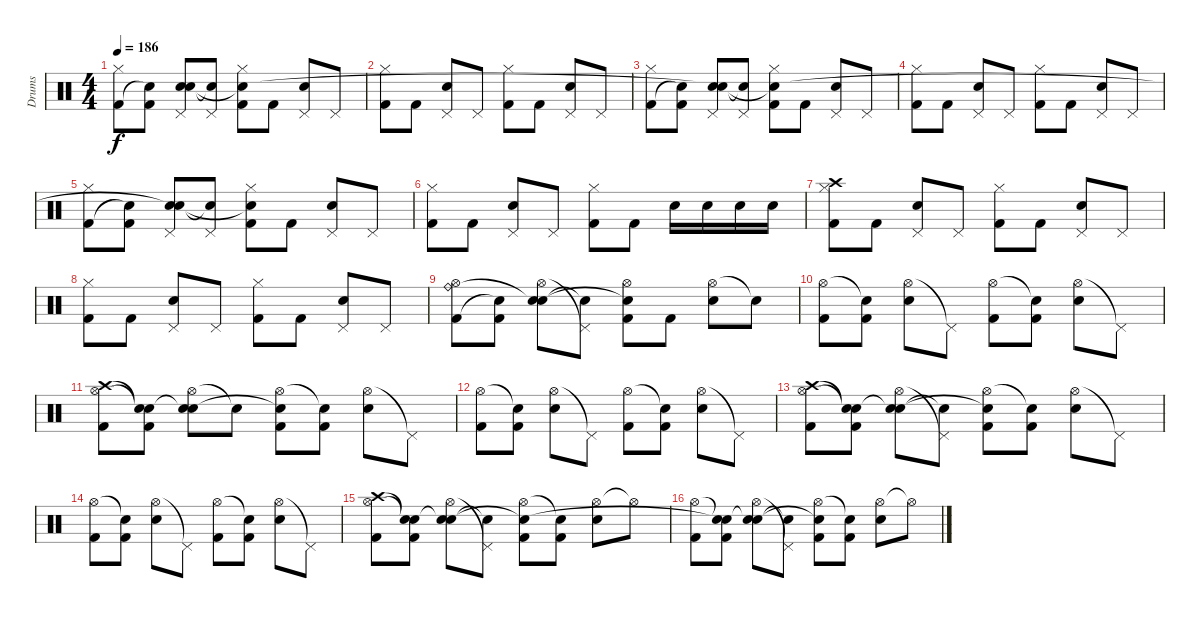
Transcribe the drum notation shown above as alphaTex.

\track ("Drums" "Drums") {instrument percussion}
\staff {score}
\articulation defaults
\ts (4 4)
\tempo 186
\clef neutral
\ks c
("Hi-Hat (closed)" "Kick (hit) 2").8{dy f} ("Kick (hit) 2" "Snare (hit)"{t}).8 ("Pedal Hi-Hat (hit)" "Electric Snare (hit)" "Snare (hit)"{t}).8 ("Pedal Hi-Hat (hit)" "Snare (hit)"{t}).8 ("Hi-Hat (closed)" "Kick (hit) 2" "Snare (hit)"{t}).8 "Kick (hit) 2".8 ("Pedal Hi-Hat (hit)" "Electric Snare (hit)").8 "Pedal Hi-Hat (hit)".8 |
("Hi-Hat (closed)" "Kick (hit) 2").8 "Kick (hit) 2".8 ("Pedal Hi-Hat (hit)" "Electric Snare (hit)").8 "Pedal Hi-Hat (hit)".8 ("Hi-Hat (closed)" "Kick (hit) 2").8 "Kick (hit) 2".8 ("Pedal Hi-Hat (hit)" "Electric Snare (hit)").8 "Pedal Hi-Hat (hit)".8 |
("Hi-Hat (closed)" "Kick (hit) 2").8 ("Kick (hit) 2" "Snare (hit)"{t}).8 ("Pedal Hi-Hat (hit)" "Electric Snare (hit)" "Snare (hit)"{t}).8 ("Pedal Hi-Hat (hit)" "Snare (hit)"{t}).8 ("Hi-Hat (closed)" "Kick (hit) 2" "Snare (hit)"{t}).8 "Kick (hit) 2".8 ("Pedal Hi-Hat (hit)" "Electric Snare (hit)").8 "Pedal Hi-Hat (hit)".8 |
("Hi-Hat (closed)" "Kick (hit) 2").8 "Kick (hit) 2".8 ("Pedal Hi-Hat (hit)" "Electric Snare (hit)").8 "Pedal Hi-Hat (hit)".8 ("Hi-Hat (closed)" "Kick (hit) 2").8 "Kick (hit) 2".8 ("Pedal Hi-Hat (hit)" "Electric Snare (hit)").8 "Pedal Hi-Hat (hit)".8 |
("Hi-Hat (closed)" "Kick (hit) 2").8 ("Kick (hit) 2" "Snare (hit)"{t}).8 ("Pedal Hi-Hat (hit)" "Electric Snare (hit)" "Snare (hit)"{t}).8 ("Pedal Hi-Hat (hit)" "Snare (hit)"{t}).8 ("Hi-Hat (closed)" "Kick (hit) 2" "Snare (hit)"{t}).8 "Kick (hit) 2".8 ("Pedal Hi-Hat (hit)" "Electric Snare (hit)").8 "Pedal Hi-Hat (hit)".8 |
("Hi-Hat (closed)" "Kick (hit) 2").8 "Kick (hit) 2".8 ("Pedal Hi-Hat (hit)" "Electric Snare (hit)").8 "Pedal Hi-Hat (hit)".8 ("Hi-Hat (closed)" "Kick (hit) 2").8 "Kick (hit) 2".8 "Electric Snare (hit)".16 "Electric Snare (hit)".16 "Electric Snare (hit)".16 "Electric Snare (hit)".16 |
("Hi-Hat (closed)" "Kick (hit) 2" "Crash high (hit)").8 "Kick (hit) 2".8 ("Pedal Hi-Hat (hit)" "Electric Snare (hit)").8 "Pedal Hi-Hat (hit)".8 ("Hi-Hat (closed)" "Kick (hit) 2").8 "Kick (hit) 2".8 ("Pedal Hi-Hat (hit)" "Electric Snare (hit)").8 "Pedal Hi-Hat (hit)".8 |
("Hi-Hat (closed)" "Kick (hit) 2").8 "Kick (hit) 2".8 ("Pedal Hi-Hat (hit)" "Electric Snare (hit)").8 "Pedal Hi-Hat (hit)".8 ("Hi-Hat (closed)" "Kick (hit) 2").8 "Kick (hit) 2".8 ("Pedal Hi-Hat (hit)" "Electric Snare (hit)").8 "Pedal Hi-Hat (hit)".8 |
("Hi-Hat (open)" "Kick (hit) 2" "Ride (bell)").8 ("Kick (hit) 2" "Snare (hit)"{t}).8 ("Hi-Hat (open)" "Electric Snare (hit)" "Snare (hit)"{t}).8 ("Pedal Hi-Hat (hit)"{t} "Snare (hit)"{t}).8 ("Hi-Hat (open)" "Kick (hit) 2" "Snare (hit)"{t}).8 "Kick (hit) 2".8 ("Hi-Hat (open)" "Electric Snare (hit)").8 "Snare (hit)"{t}.8 |
("Hi-Hat (open)" "Kick (hit) 2").8 ("Snare (hit)"{t} "Kick (hit) 2").8 ("Hi-Hat (open)" "Electric Snare (hit)").8 "Pedal Hi-Hat (hit)"{t}.8 ("Hi-Hat (open)" "Kick (hit) 2").8 ("Snare (hit)"{t} "Kick (hit) 2").8 ("Hi-Hat (open)" "Electric Snare (hit)").8 "Pedal Hi-Hat (hit)"{t}.8 |
("Hi-Hat (open)" "Kick (hit) 2" "Crash high (hit)").8 ("Snare (hit)"{t} "Kick (hit) 2" "Snare (hit)"{t}).8 ("Hi-Hat (open)" "Electric Snare (hit)" "Snare (hit)"{t}).8 "Snare (hit)"{t}.8 ("Hi-Hat (open)" "Kick (hit) 2" "Snare (hit)"{t}).8 ("Snare (hit)"{t} "Kick (hit) 2").8 ("Hi-Hat (open)" "Electric Snare (hit)").8 "Pedal Hi-Hat (hit)"{t}.8 |
("Hi-Hat (open)" "Kick (hit) 2").8 ("Snare (hit)"{t} "Kick (hit) 2").8 ("Hi-Hat (open)" "Electric Snare (hit)").8 "Pedal Hi-Hat (hit)"{t}.8 ("Hi-Hat (open)" "Kick (hit) 2").8 ("Snare (hit)"{t} "Kick (hit) 2").8 ("Hi-Hat (open)" "Electric Snare (hit)").8 "Pedal Hi-Hat (hit)"{t}.8 |
("Hi-Hat (open)" "Kick (hit) 2" "Crash high (hit)").8 ("Snare (hit)"{t} "Kick (hit) 2" "Snare (hit)"{t}).8 ("Hi-Hat (open)" "Electric Snare (hit)" "Snare (hit)"{t}).8 ("Pedal Hi-Hat (hit)"{t} "Snare (hit)"{t}).8 ("Hi-Hat (open)" "Kick (hit) 2" "Snare (hit)"{t}).8 ("Snare (hit)"{t} "Kick (hit) 2").8 ("Hi-Hat (open)" "Electric Snare (hit)").8 "Pedal Hi-Hat (hit)"{t}.8 |
("Hi-Hat (open)" "Kick (hit) 2").8 ("Snare (hit)"{t} "Kick (hit) 2").8 ("Hi-Hat (open)" "Electric Snare (hit)").8 "Pedal Hi-Hat (hit)"{t}.8 ("Hi-Hat (open)" "Kick (hit) 2").8 ("Snare (hit)"{t} "Kick (hit) 2").8 ("Hi-Hat (open)" "Electric Snare (hit)").8 "Pedal Hi-Hat (hit)"{t}.8 |
("Hi-Hat (open)" "Kick (hit) 2" "Crash high (hit)").8 ("Snare (hit)"{t} "Kick (hit) 2" "Snare (hit)"{t}).8 ("Hi-Hat (open)" "Electric Snare (hit)" "Snare (hit)"{t}).8 ("Pedal Hi-Hat (hit)"{t} "Snare (hit)"{t}).8 ("Hi-Hat (open)" "Kick (hit) 2" "Snare (hit)"{t}).8 ("Snare (hit)"{t} "Kick (hit) 2").8 ("Hi-Hat (open)" "Electric Snare (hit)").8 "Hi-Hat (open)"{t}.8 |
("Hi-Hat (open)" "Kick (hit) 2").8 ("Snare (hit)"{t} "Kick (hit) 2" "Snare (hit)"{t}).8 ("Hi-Hat (open)" "Electric Snare (hit)" "Snare (hit)"{t}).8 ("Pedal Hi-Hat (hit)"{t} "Snare (hit)"{t}).8 ("Hi-Hat (open)" "Kick (hit) 2" "Snare (hit)"{t}).8 ("Snare (hit)"{t} "Kick (hit) 2").8 ("Hi-Hat (open)" "Electric Snare (hit)").8 "Hi-Hat (open)"{t}.8
